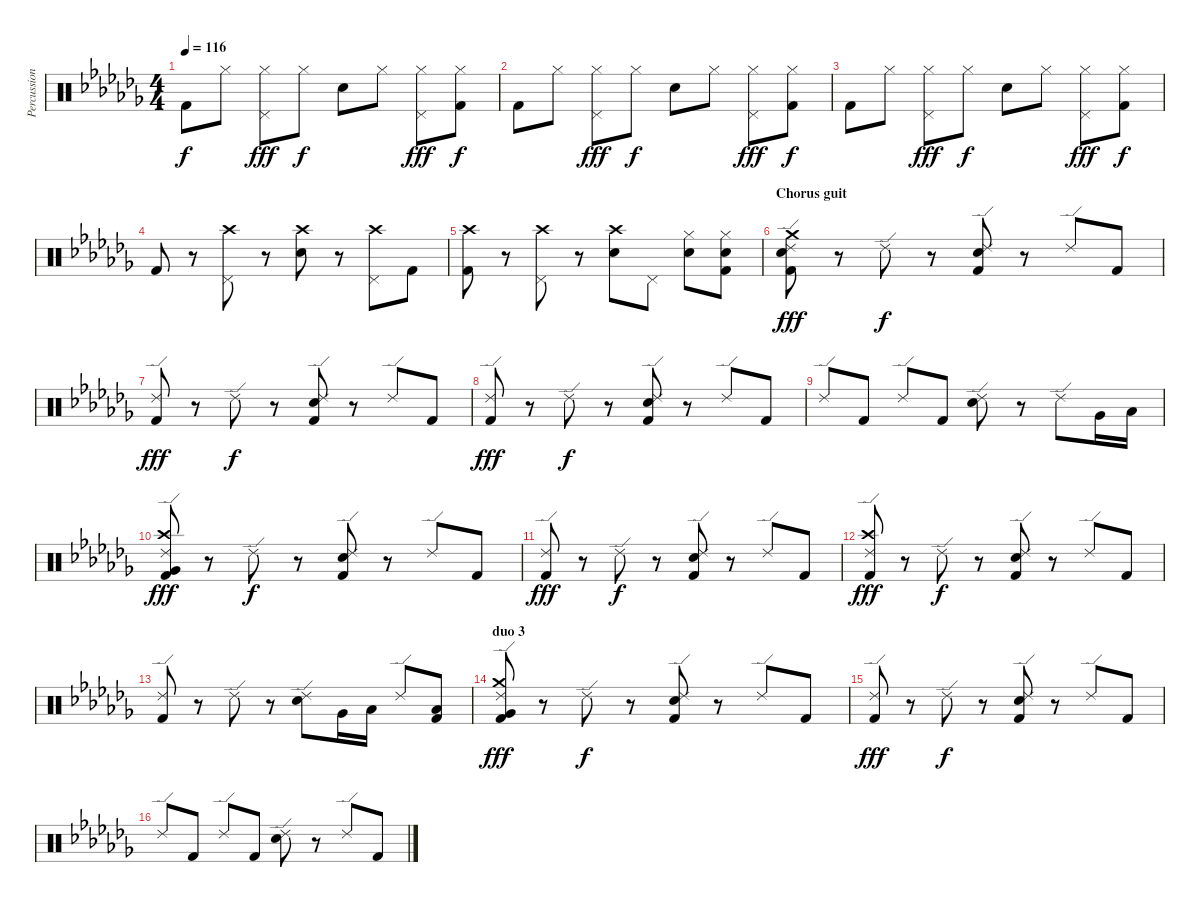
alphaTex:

\track ("Percussions" "Percussion") {instrument percussion}
\staff {score}
\articulation defaults
\ts (4 4)
\tempo 116
\clef neutral
\ks abminor "Kick (hit) 2".8{dy f} "Hi-Hat (closed)".8
("Hi-Hat (closed)" "Pedal Hi-Hat (hit)").8{dy fff} "Hi-Hat (closed)".8{dy f} "Snare (hit) 2".8 "Hi-Hat (closed)".8 ("Hi-Hat (closed)" "Pedal Hi-Hat (hit)").8{dy fff} ("Hi-Hat (closed)" "Kick (hit) 2").8{dy f} |
"Kick (hit) 2".8 "Hi-Hat (closed)".8 ("Hi-Hat (closed)" "Pedal Hi-Hat (hit)").8{dy fff} "Hi-Hat (closed)".8{dy f} "Snare (hit) 2".8 "Hi-Hat (closed)".8 ("Hi-Hat (closed)" "Pedal Hi-Hat (hit)").8{dy fff} ("Hi-Hat (closed)" "Kick (hit) 2").8{dy f} |
"Kick (hit) 2".8 "Hi-Hat (closed)".8 ("Hi-Hat (closed)" "Pedal Hi-Hat (hit)").8{dy fff} "Hi-Hat (closed)".8{dy f} "Snare (hit) 2".8 "Hi-Hat (closed)".8 ("Hi-Hat (closed)" "Pedal Hi-Hat (hit)").8{dy fff} ("Hi-Hat (closed)" "Kick (hit) 2").8{dy f} |
"Kick (hit) 2".8 r.8 ("Crash high (hit)" "Pedal Hi-Hat (hit)").8 r.8 ("Crash high (hit)" "Snare (hit) 2").8 r.8 ("Crash high (hit)" "Pedal Hi-Hat (hit)").8 "Kick (hit) 2".8 |
("Crash high (hit)" "Kick (hit) 2").8 r.8 ("Crash high (hit)" "Pedal Hi-Hat (hit)").8 r.8 ("Crash high (hit)" "Snare (hit) 2").8 "Pedal Hi-Hat (hit)".8 ("Hi-Hat (closed)" "Snare (hit) 2").8 ("Hi-Hat (closed)" "Snare (hit) 2" "Kick (hit) 2").8 |
\section ("" "Chorus guit")
("Ride (edge) 2" "Crash medium (hit)" "Snare (hit) 2" "Kick (hit) 2").8{dy fff} r.8 "Ride (edge) 2".8{dy f} r.8 ("Ride (edge) 2" "Snare (hit) 2" "Kick (hit) 2").8 r.8 "Ride (edge) 2".8 "Kick (hit) 2".8 |
("Ride (edge) 2" "Kick (hit) 2").8{dy fff} r.8 "Ride (edge) 2".8{dy f} r.8 ("Ride (edge) 2" "Snare (hit) 2" "Kick (hit) 2").8 r.8 "Ride (edge) 2".8 "Kick (hit) 2".8 |
("Ride (edge) 2" "Kick (hit) 2").8{dy fff} r.8 "Ride (edge) 2".8{dy f} r.8 ("Ride (edge) 2" "Snare (hit) 2" "Kick (hit) 2").8 r.8 "Ride (edge) 2".8 "Kick (hit) 2".8 |
"Ride (edge) 2".8 "Kick (hit) 2".8 "Ride (edge) 2".8 "Kick (hit) 2".8 ("Ride (edge) 2" "Snare (hit) 2").8 r.8 "Ride (edge) 2".8 "Very Low Tom (hit)".16 "Low Floor Tom (hit)".16 |
("Ride (edge) 2" "Crash high (hit)" "Very Low Tom (hit)" "Kick (hit) 2").8{dy fff} r.8 "Ride (edge) 2".8{dy f} r.8 ("Ride (edge) 2" "Snare (hit) 2" "Kick (hit) 2").8 r.8 "Ride (edge) 2".8 "Kick (hit) 2".8 |
("Ride (edge) 2" "Kick (hit) 2").8{dy fff} r.8 "Ride (edge) 2".8{dy f} r.8 ("Ride (edge) 2" "Snare (hit) 2" "Kick (hit) 2").8 r.8 "Ride (edge) 2".8 "Kick (hit) 2".8 |
("Ride (edge) 2" "Crash high (hit)" "Kick (hit) 2").8{dy fff} r.8 "Ride (edge) 2".8{dy f} r.8 ("Ride (edge) 2" "Snare (hit) 2" "Kick (hit) 2").8 r.8 "Ride (edge) 2".8 "Kick (hit) 2".8 |
("Ride (edge) 2" "Kick (hit) 2").8 r.8 "Ride (edge) 2".8 r.8 ("Ride (edge) 2" "Snare (hit) 2").8 "Very Low Tom (hit)".16 "Low Floor Tom (hit)".16 "Ride (edge) 2".8 ("Low Floor Tom (hit)" "Kick (hit) 2").8 |
\section ("" "duo 3")
("Ride (edge) 2" "Crash medium (hit)" "Very Low Tom (hit)" "Kick (hit) 2").8{dy fff} r.8 "Ride (edge) 2".8{dy f} r.8 ("Ride (edge) 2" "Snare (hit) 2" "Kick (hit) 2").8 r.8 "Ride (edge) 2".8 "Kick (hit) 2".8 |
("Ride (edge) 2" "Kick (hit) 2").8{dy fff} r.8 "Ride (edge) 2".8{dy f} r.8 ("Ride (edge) 2" "Snare (hit) 2" "Kick (hit) 2").8 r.8 "Ride (edge) 2".8 "Kick (hit) 2".8 |
"Ride (edge) 2".8 "Kick (hit) 2".8 "Ride (edge) 2".8 "Kick (hit) 2".8 ("Ride (edge) 2" "Snare (hit) 2").8 r.8 "Ride (edge) 2".8 "Kick (hit) 2".8
